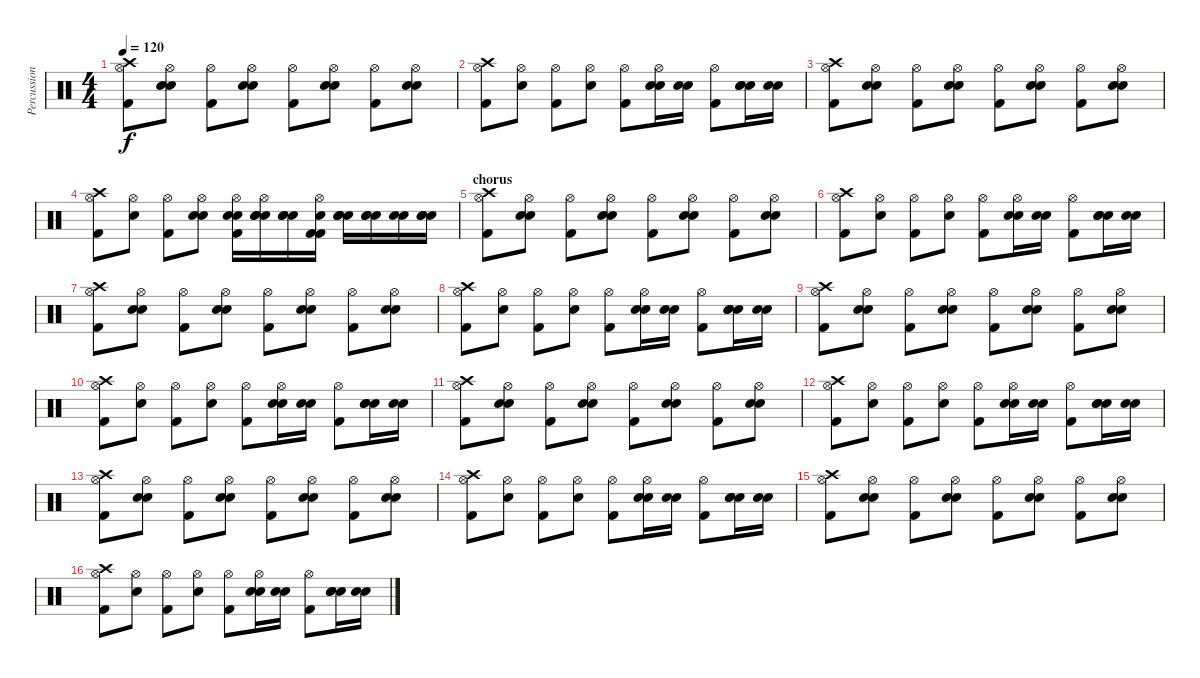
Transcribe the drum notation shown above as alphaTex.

\track ("Percussion" "Percussion") {instrument percussion}
\staff {score}
\articulation defaults
\ts (4 4)
\tempo 120
\clef neutral
\ks c
("Hi-Hat (open)" "Crash high (hit)" "Kick (hit) 2").8{dy f} ("Hi-Hat (open)" "Electric Snare (hit)" "Snare (hit) 2").8 ("Hi-Hat (open)" "Kick (hit) 2").8 ("Hi-Hat (open)" "Electric Snare (hit)" "Snare (hit) 2").8 ("Hi-Hat (open)" "Kick (hit) 2").8 ("Hi-Hat (open)" "Electric Snare (hit)" "Snare (hit) 2").8 ("Hi-Hat (open)" "Kick (hit) 2").8 ("Hi-Hat (open)" "Electric Snare (hit)" "Snare (hit) 2").8 |
("Hi-Hat (open)" "Crash high (hit)" "Kick (hit) 2").8 ("Hi-Hat (open)" "Electric Snare (hit)").8 ("Hi-Hat (open)" "Kick (hit) 2").8 ("Hi-Hat (open)" "Electric Snare (hit)").8 ("Hi-Hat (open)" "Kick (hit) 2").8 ("Hi-Hat (open)" "Electric Snare (hit)" "Snare (hit) 2").16 ("Electric Snare (hit)" "Snare (hit) 2").16 ("Hi-Hat (open)" "Kick (hit) 2").8 ("Electric Snare (hit)" "Electric Snare (hit)" "Snare (hit) 2").16 ("Electric Snare (hit)" "Snare (hit) 2").16 |
("Hi-Hat (open)" "Crash high (hit)" "Kick (hit) 2").8 ("Hi-Hat (open)" "Electric Snare (hit)" "Snare (hit) 2").8 ("Hi-Hat (open)" "Kick (hit) 2").8 ("Hi-Hat (open)" "Electric Snare (hit)" "Snare (hit) 2").8 ("Hi-Hat (open)" "Kick (hit) 2").8 ("Hi-Hat (open)" "Electric Snare (hit)" "Snare (hit) 2").8 ("Hi-Hat (open)" "Kick (hit) 2").8 ("Hi-Hat (open)" "Electric Snare (hit)" "Snare (hit) 2").8 |
("Hi-Hat (open)" "Crash high (hit)" "Kick (hit) 2").8 ("Hi-Hat (open)" "Electric Snare (hit)").8 ("Hi-Hat (open)" "Kick (hit) 2").8 ("Hi-Hat (open)" "Electric Snare (hit)" "Electric Snare (hit)").8 ("Hi-Hat (open)" "Electric Snare (hit)" "Kick (hit) 2" "Snare (hit)").16 ("Hi-Hat (open)" "Electric Snare (hit)" "Electric Snare (hit)" "Snare (hit) 2").16 ("Electric Snare (hit)" "Electric Snare (hit)" "Snare (hit) 2").16 ("Hi-Hat (open)" "Electric Snare (hit)" "Kick (hit) 2" "Kick (hit) 2").16 ("Electric Snare (hit)" "Electric Snare (hit)" "Electric Snare (hit)" "Snare (hit) 2").16 ("Electric Snare (hit)" "Electric Snare (hit)" "Snare (hit) 2").16 ("Electric Snare (hit)" "Electric Snare (hit)").16 ("Snare (hit) 2" "Electric Snare (hit)" "Snare (hit) 2").16 |
\section ("" "chorus")
("Hi-Hat (open)" "Crash high (hit)" "Kick (hit) 2").8 ("Hi-Hat (open)" "Electric Snare (hit)" "Snare (hit) 2").8 ("Hi-Hat (open)" "Kick (hit) 2").8 ("Hi-Hat (open)" "Electric Snare (hit)" "Snare (hit) 2").8 ("Hi-Hat (open)" "Kick (hit) 2").8 ("Hi-Hat (open)" "Electric Snare (hit)" "Snare (hit) 2").8 ("Hi-Hat (open)" "Kick (hit) 2").8 ("Hi-Hat (open)" "Electric Snare (hit)" "Snare (hit) 2").8 |
("Hi-Hat (open)" "Crash high (hit)" "Kick (hit) 2").8 ("Hi-Hat (open)" "Electric Snare (hit)").8 ("Hi-Hat (open)" "Kick (hit) 2").8 ("Hi-Hat (open)" "Electric Snare (hit)").8 ("Hi-Hat (open)" "Kick (hit) 2").8 ("Hi-Hat (open)" "Electric Snare (hit)" "Snare (hit) 2").16 ("Electric Snare (hit)" "Snare (hit) 2").16 ("Hi-Hat (open)" "Kick (hit) 2").8 ("Electric Snare (hit)" "Electric Snare (hit)" "Snare (hit) 2").16 ("Electric Snare (hit)" "Snare (hit) 2").16 |
("Hi-Hat (open)" "Crash high (hit)" "Kick (hit) 2").8 ("Hi-Hat (open)" "Electric Snare (hit)" "Snare (hit) 2").8 ("Hi-Hat (open)" "Kick (hit) 2").8 ("Hi-Hat (open)" "Electric Snare (hit)" "Snare (hit) 2").8 ("Hi-Hat (open)" "Kick (hit) 2").8 ("Hi-Hat (open)" "Electric Snare (hit)" "Snare (hit) 2").8 ("Hi-Hat (open)" "Kick (hit) 2").8 ("Hi-Hat (open)" "Electric Snare (hit)" "Snare (hit) 2").8 |
("Hi-Hat (open)" "Crash high (hit)" "Kick (hit) 2").8 ("Hi-Hat (open)" "Electric Snare (hit)").8 ("Hi-Hat (open)" "Kick (hit) 2").8 ("Hi-Hat (open)" "Electric Snare (hit)").8 ("Hi-Hat (open)" "Kick (hit) 2").8 ("Hi-Hat (open)" "Electric Snare (hit)" "Snare (hit) 2").16 ("Electric Snare (hit)" "Snare (hit) 2").16 ("Hi-Hat (open)" "Kick (hit) 2").8 ("Electric Snare (hit)" "Electric Snare (hit)" "Snare (hit) 2").16 ("Electric Snare (hit)" "Snare (hit) 2").16 |
("Hi-Hat (open)" "Crash high (hit)" "Kick (hit) 2").8 ("Hi-Hat (open)" "Electric Snare (hit)" "Snare (hit) 2").8 ("Hi-Hat (open)" "Kick (hit) 2").8 ("Hi-Hat (open)" "Electric Snare (hit)" "Snare (hit) 2").8 ("Hi-Hat (open)" "Kick (hit) 2").8 ("Hi-Hat (open)" "Electric Snare (hit)" "Snare (hit) 2").8 ("Hi-Hat (open)" "Kick (hit) 2").8 ("Hi-Hat (open)" "Electric Snare (hit)" "Snare (hit) 2").8 |
("Hi-Hat (open)" "Crash high (hit)" "Kick (hit) 2").8 ("Hi-Hat (open)" "Electric Snare (hit)").8 ("Hi-Hat (open)" "Kick (hit) 2").8 ("Hi-Hat (open)" "Electric Snare (hit)").8 ("Hi-Hat (open)" "Kick (hit) 2").8 ("Hi-Hat (open)" "Electric Snare (hit)" "Snare (hit) 2").16 ("Electric Snare (hit)" "Snare (hit) 2").16 ("Hi-Hat (open)" "Kick (hit) 2").8 ("Electric Snare (hit)" "Electric Snare (hit)" "Snare (hit) 2").16 ("Electric Snare (hit)" "Snare (hit) 2").16 |
("Hi-Hat (open)" "Crash high (hit)" "Kick (hit) 2").8 ("Hi-Hat (open)" "Electric Snare (hit)" "Snare (hit) 2").8 ("Hi-Hat (open)" "Kick (hit) 2").8 ("Hi-Hat (open)" "Electric Snare (hit)" "Snare (hit) 2").8 ("Hi-Hat (open)" "Kick (hit) 2").8 ("Hi-Hat (open)" "Electric Snare (hit)" "Snare (hit) 2").8 ("Hi-Hat (open)" "Kick (hit) 2").8 ("Hi-Hat (open)" "Electric Snare (hit)" "Snare (hit) 2").8 |
("Hi-Hat (open)" "Crash high (hit)" "Kick (hit) 2").8 ("Hi-Hat (open)" "Electric Snare (hit)").8 ("Hi-Hat (open)" "Kick (hit) 2").8 ("Hi-Hat (open)" "Electric Snare (hit)").8 ("Hi-Hat (open)" "Kick (hit) 2").8 ("Hi-Hat (open)" "Electric Snare (hit)" "Snare (hit) 2").16 ("Electric Snare (hit)" "Snare (hit) 2").16 ("Hi-Hat (open)" "Kick (hit) 2").8 ("Electric Snare (hit)" "Electric Snare (hit)" "Snare (hit) 2").16 ("Electric Snare (hit)" "Snare (hit) 2").16 |
("Hi-Hat (open)" "Crash high (hit)" "Kick (hit) 2").8 ("Hi-Hat (open)" "Electric Snare (hit)" "Snare (hit) 2").8 ("Hi-Hat (open)" "Kick (hit) 2").8 ("Hi-Hat (open)" "Electric Snare (hit)" "Snare (hit) 2").8 ("Hi-Hat (open)" "Kick (hit) 2").8 ("Hi-Hat (open)" "Electric Snare (hit)" "Snare (hit) 2").8 ("Hi-Hat (open)" "Kick (hit) 2").8 ("Hi-Hat (open)" "Electric Snare (hit)" "Snare (hit) 2").8 |
("Hi-Hat (open)" "Crash high (hit)" "Kick (hit) 2").8 ("Hi-Hat (open)" "Electric Snare (hit)").8 ("Hi-Hat (open)" "Kick (hit) 2").8 ("Hi-Hat (open)" "Electric Snare (hit)").8 ("Hi-Hat (open)" "Kick (hit) 2").8 ("Hi-Hat (open)" "Electric Snare (hit)" "Snare (hit) 2").16 ("Electric Snare (hit)" "Snare (hit) 2").16 ("Hi-Hat (open)" "Kick (hit) 2").8 ("Electric Snare (hit)" "Electric Snare (hit)" "Snare (hit) 2").16 ("Electric Snare (hit)" "Snare (hit) 2").16 |
("Hi-Hat (open)" "Crash high (hit)" "Kick (hit) 2").8 ("Hi-Hat (open)" "Electric Snare (hit)" "Snare (hit) 2").8 ("Hi-Hat (open)" "Kick (hit) 2").8 ("Hi-Hat (open)" "Electric Snare (hit)" "Snare (hit) 2").8 ("Hi-Hat (open)" "Kick (hit) 2").8 ("Hi-Hat (open)" "Electric Snare (hit)" "Snare (hit) 2").8 ("Hi-Hat (open)" "Kick (hit) 2").8 ("Hi-Hat (open)" "Electric Snare (hit)" "Snare (hit) 2").8 |
("Hi-Hat (open)" "Crash high (hit)" "Kick (hit) 2").8 ("Hi-Hat (open)" "Electric Snare (hit)").8 ("Hi-Hat (open)" "Kick (hit) 2").8 ("Hi-Hat (open)" "Electric Snare (hit)").8 ("Hi-Hat (open)" "Kick (hit) 2").8 ("Hi-Hat (open)" "Electric Snare (hit)" "Snare (hit) 2").16 ("Electric Snare (hit)" "Snare (hit) 2").16 ("Hi-Hat (open)" "Kick (hit) 2").8 ("Electric Snare (hit)" "Electric Snare (hit)" "Snare (hit) 2").16 ("Electric Snare (hit)" "Snare (hit) 2").16
